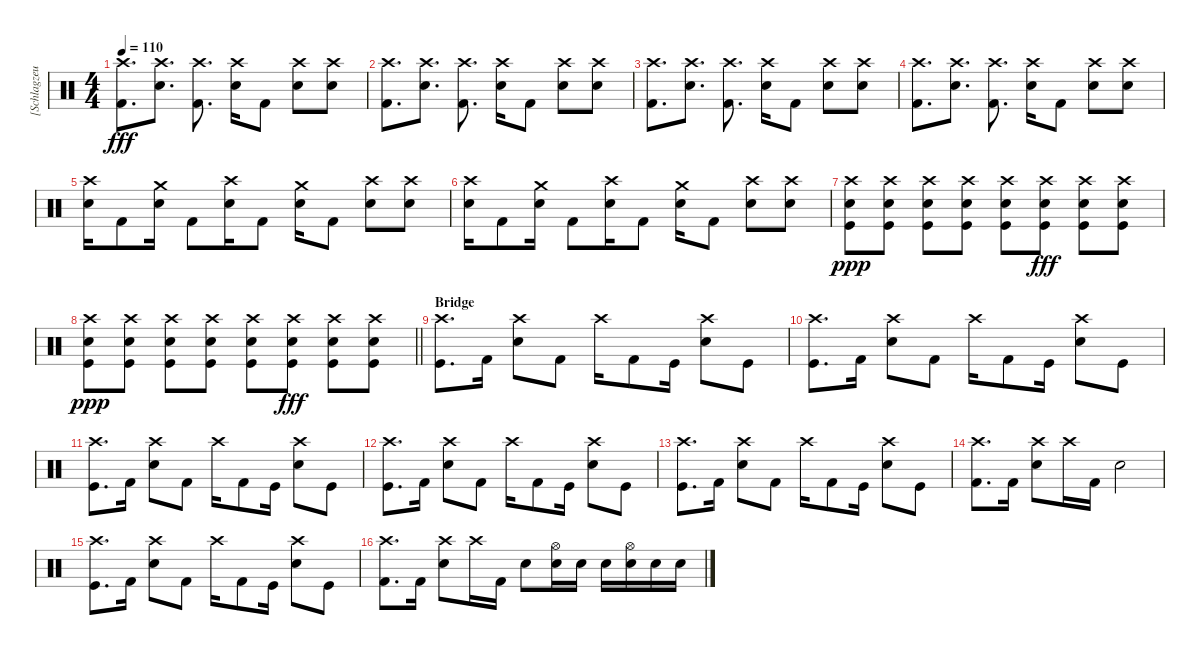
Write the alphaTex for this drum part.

\track ("[Schlagzeug]" "[Schlagzeu") {instrument percussion}
\staff {score}
\articulation defaults
\ts (4 4)
\tempo 110
\clef neutral
\ks c
("Crash high (hit)" "Kick (hit) 2").8{d dy fff} ("Crash high (hit)" "Electric Snare (hit)").8{d} ("Crash high (hit)" "Kick (hit) 2").8{d} ("Crash high (hit)" "Electric Snare (hit)").16 "Kick (hit) 2".8 ("Electric Snare (hit)" "Crash high (hit)").8 ("Electric Snare (hit)" "Crash high (hit)").8 |
("Crash high (hit)" "Kick (hit) 2").8{d} ("Crash high (hit)" "Electric Snare (hit)").8{d} ("Crash high (hit)" "Kick (hit) 2").8{d} ("Crash high (hit)" "Electric Snare (hit)").16 "Kick (hit) 2".8 ("Electric Snare (hit)" "Crash high (hit)").8 ("Electric Snare (hit)" "Crash high (hit)").8 |
("Crash high (hit)" "Kick (hit) 2").8{d} ("Crash high (hit)" "Electric Snare (hit)").8{d} ("Crash high (hit)" "Kick (hit) 2").8{d} ("Crash high (hit)" "Electric Snare (hit)").16 "Kick (hit) 2".8 ("Electric Snare (hit)" "Crash high (hit)").8 ("Electric Snare (hit)" "Crash high (hit)").8 |
("Crash high (hit)" "Kick (hit) 2").8{d} ("Crash high (hit)" "Electric Snare (hit)").8{d} ("Crash high (hit)" "Kick (hit) 2").8{d} ("Crash high (hit)" "Electric Snare (hit)").16 "Kick (hit) 2".8 ("Electric Snare (hit)" "Crash high (hit)").8 ("Electric Snare (hit)" "Crash high (hit)").8 |
("Crash high (hit)" "Electric Snare (hit)").16 "Kick (hit) 2".8 ("Crash medium (hit)" "Electric Snare (hit)").16 "Kick (hit) 2".8 ("Crash high (hit)" "Electric Snare (hit)").16 "Kick (hit) 2".8 ("Crash medium (hit)" "Electric Snare (hit)").16 "Kick (hit) 2".8 ("Crash high (hit)" "Electric Snare (hit)").8 ("Crash high (hit)" "Electric Snare (hit)").8 |
("Crash high (hit)" "Electric Snare (hit)").16 "Kick (hit) 2".8 ("Crash medium (hit)" "Electric Snare (hit)").16 "Kick (hit) 2".8 ("Crash high (hit)" "Electric Snare (hit)").16 "Kick (hit) 2".8 ("Crash medium (hit)" "Electric Snare (hit)").16 "Kick (hit) 2".8 ("Crash high (hit)" "Electric Snare (hit)").8 ("Crash high (hit)" "Electric Snare (hit)").8 |
("Electric Snare (hit)" "Crash high (hit)" "Kick (hit)").8{dy ppp} ("Electric Snare (hit)" "Crash high (hit)" "Kick (hit)").8 ("Electric Snare (hit)" "Crash high (hit)" "Kick (hit)").8 ("Electric Snare (hit)" "Crash high (hit)" "Kick (hit)").8 ("Electric Snare (hit)" "Crash high (hit)" "Kick (hit)").8 ("Electric Snare (hit)" "Crash high (hit)" "Kick (hit)").8{dy fff} ("Electric Snare (hit)" "Crash high (hit)" "Kick (hit)").8 ("Electric Snare (hit)" "Crash high (hit)" "Kick (hit)").8 |
\barLineRight lightlight
("Electric Snare (hit)" "Crash high (hit)" "Kick (hit)").8{dy ppp} ("Electric Snare (hit)" "Crash high (hit)" "Kick (hit)").8 ("Electric Snare (hit)" "Crash high (hit)" "Kick (hit)").8 ("Electric Snare (hit)" "Crash high (hit)" "Kick (hit)").8 ("Electric Snare (hit)" "Crash high (hit)" "Kick (hit)").8 ("Electric Snare (hit)" "Crash high (hit)" "Kick (hit)").8{dy fff} ("Electric Snare (hit)" "Crash high (hit)" "Kick (hit)").8 ("Electric Snare (hit)" "Crash high (hit)" "Kick (hit)").8 |
\section ("" "Bridge")
("Kick (hit)" "Crash high (hit)").8{d} "Kick (hit) 2".16 ("Crash high (hit)" "Electric Snare (hit)").8 "Kick (hit) 2".8 "Crash high (hit)".16 "Kick (hit) 2".8 "Kick (hit)".16 ("Crash high (hit)" "Electric Snare (hit)").8 "Kick (hit)".8 |
("Kick (hit)" "Crash high (hit)").8{d} "Kick (hit) 2".16 ("Crash high (hit)" "Electric Snare (hit)").8 "Kick (hit) 2".8 "Crash high (hit)".16 "Kick (hit) 2".8 "Kick (hit)".16 ("Crash high (hit)" "Electric Snare (hit)").8 "Kick (hit)".8 |
("Kick (hit)" "Crash high (hit)").8{d} "Kick (hit) 2".16 ("Crash high (hit)" "Electric Snare (hit)").8 "Kick (hit) 2".8 "Crash high (hit)".16 "Kick (hit) 2".8 "Kick (hit)".16 ("Crash high (hit)" "Electric Snare (hit)").8 "Kick (hit)".8 |
("Kick (hit)" "Crash high (hit)").8{d} "Kick (hit) 2".16 ("Crash high (hit)" "Electric Snare (hit)").8 "Kick (hit) 2".8 "Crash high (hit)".16 "Kick (hit) 2".8 "Kick (hit)".16 ("Crash high (hit)" "Electric Snare (hit)").8 "Kick (hit)".8 |
("Kick (hit)" "Crash high (hit)").8{d} "Kick (hit) 2".16 ("Crash high (hit)" "Electric Snare (hit)").8 "Kick (hit) 2".8 "Crash high (hit)".16 "Kick (hit) 2".8 "Kick (hit)".16 ("Crash high (hit)" "Electric Snare (hit)").8 "Kick (hit)".8 |
("Crash high (hit)" "Kick (hit) 2").8{d} "Kick (hit) 2".16 ("Crash high (hit)" "Electric Snare (hit)").8 "Crash high (hit)".16 "Kick (hit) 2".16 "Electric Snare (hit)".2 |
("Kick (hit)" "Crash high (hit)").8{d} "Kick (hit) 2".16 ("Crash high (hit)" "Electric Snare (hit)").8 "Kick (hit) 2".8 "Crash high (hit)".16 "Kick (hit) 2".8 "Kick (hit)".16 ("Crash high (hit)" "Electric Snare (hit)").8 "Kick (hit)".8 |
("Crash high (hit)" "Kick (hit) 2").8{d} "Kick (hit) 2".16 ("Crash high (hit)" "Electric Snare (hit)").8 "Crash high (hit)".16 "Kick (hit) 2".16 "Electric Snare (hit)".8 ("Hi-Hat (open)" "Electric Snare (hit)").16 "Electric Snare (hit)".16 "Electric Snare (hit)".16 ("Hi-Hat (open)" "Electric Snare (hit)").16 "Electric Snare (hit)".16 "Electric Snare (hit)".16
